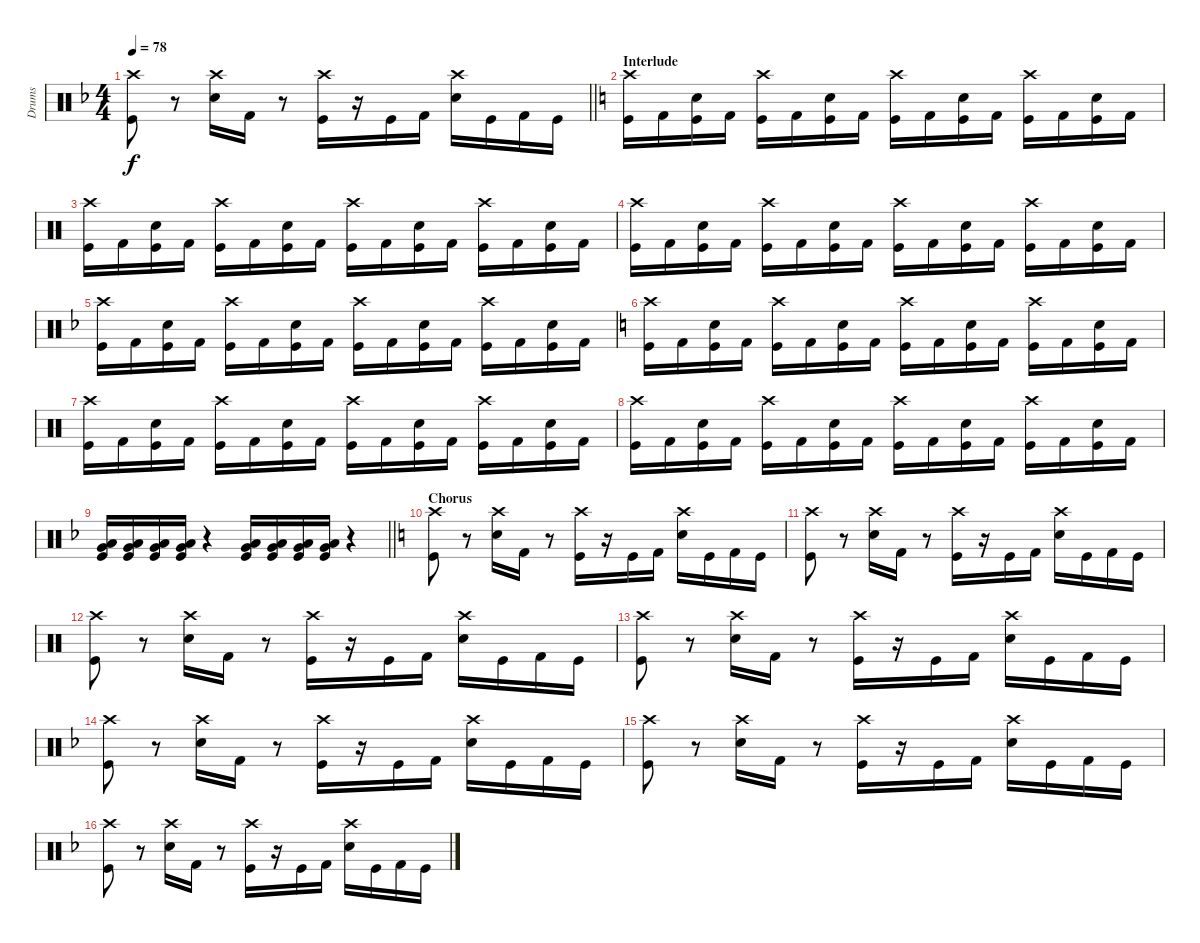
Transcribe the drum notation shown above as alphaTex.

\track ("Drums" "Drums") {instrument percussion}
\staff {score}
\articulation defaults
\ts (4 4)
\tempo 78
\clef neutral
\barLineRight lightlight
\ks f
("Crash high (hit)" "Kick (hit)").8{dy f} r.8 ("Crash high (hit)" "Snare (hit) 2").16 "Kick (hit) 2".16 r.8 ("Crash high (hit)" "Kick (hit)").16 r.16 "Kick (hit)".16 "Kick (hit) 2".16 ("Crash high (hit)" "Snare (hit) 2").16 "Kick (hit)".16 "Kick (hit) 2".16 "Kick (hit)".16 |
\section ("" "Interlude")
\ks c
("Crash high (hit)" "Kick (hit)").16 "Kick (hit) 2".16 ("Snare (hit) 2" "Kick (hit)").16 "Kick (hit) 2".16 ("Crash high (hit)" "Kick (hit)").16 "Kick (hit) 2".16 ("Snare (hit) 2" "Kick (hit)").16 "Kick (hit) 2".16 ("Crash high (hit)" "Kick (hit)").16 "Kick (hit) 2".16 ("Snare (hit) 2" "Kick (hit)").16 "Kick (hit) 2".16 ("Crash high (hit)" "Kick (hit)").16 "Kick (hit) 2".16 ("Snare (hit) 2" "Kick (hit)").16 "Kick (hit) 2".16 |
("Crash high (hit)" "Kick (hit)").16 "Kick (hit) 2".16 ("Snare (hit) 2" "Kick (hit)").16 "Kick (hit) 2".16 ("Crash high (hit)" "Kick (hit)").16 "Kick (hit) 2".16 ("Snare (hit) 2" "Kick (hit)").16 "Kick (hit) 2".16 ("Crash high (hit)" "Kick (hit)").16 "Kick (hit) 2".16 ("Snare (hit) 2" "Kick (hit)").16 "Kick (hit) 2".16 ("Crash high (hit)" "Kick (hit)").16 "Kick (hit) 2".16 ("Snare (hit) 2" "Kick (hit)").16 "Kick (hit) 2".16 |
("Crash high (hit)" "Kick (hit)").16 "Kick (hit) 2".16 ("Snare (hit) 2" "Kick (hit)").16 "Kick (hit) 2".16 ("Crash high (hit)" "Kick (hit)").16 "Kick (hit) 2".16 ("Snare (hit) 2" "Kick (hit)").16 "Kick (hit) 2".16 ("Crash high (hit)" "Kick (hit)").16 "Kick (hit) 2".16 ("Snare (hit) 2" "Kick (hit)").16 "Kick (hit) 2".16 ("Crash high (hit)" "Kick (hit)").16 "Kick (hit) 2".16 ("Snare (hit) 2" "Kick (hit)").16 "Kick (hit) 2".16 |
\ks f
("Crash high (hit)" "Kick (hit)").16 "Kick (hit) 2".16 ("Snare (hit) 2" "Kick (hit)").16 "Kick (hit) 2".16 ("Crash high (hit)" "Kick (hit)").16 "Kick (hit) 2".16 ("Snare (hit) 2" "Kick (hit)").16 "Kick (hit) 2".16 ("Crash high (hit)" "Kick (hit)").16 "Kick (hit) 2".16 ("Snare (hit) 2" "Kick (hit)").16 "Kick (hit) 2".16 ("Crash high (hit)" "Kick (hit)").16 "Kick (hit) 2".16 ("Snare (hit) 2" "Kick (hit)").16 "Kick (hit) 2".16 |
\ks c
("Crash high (hit)" "Kick (hit)").16 "Kick (hit) 2".16 ("Snare (hit) 2" "Kick (hit)").16 "Kick (hit) 2".16 ("Crash high (hit)" "Kick (hit)").16 "Kick (hit) 2".16 ("Snare (hit) 2" "Kick (hit)").16 "Kick (hit) 2".16 ("Crash high (hit)" "Kick (hit)").16 "Kick (hit) 2".16 ("Snare (hit) 2" "Kick (hit)").16 "Kick (hit) 2".16 ("Crash high (hit)" "Kick (hit)").16 "Kick (hit) 2".16 ("Snare (hit) 2" "Kick (hit)").16 "Kick (hit) 2".16 |
("Crash high (hit)" "Kick (hit)").16 "Kick (hit) 2".16 ("Snare (hit) 2" "Kick (hit)").16 "Kick (hit) 2".16 ("Crash high (hit)" "Kick (hit)").16 "Kick (hit) 2".16 ("Snare (hit) 2" "Kick (hit)").16 "Kick (hit) 2".16 ("Crash high (hit)" "Kick (hit)").16 "Kick (hit) 2".16 ("Snare (hit) 2" "Kick (hit)").16 "Kick (hit) 2".16 ("Crash high (hit)" "Kick (hit)").16 "Kick (hit) 2".16 ("Snare (hit) 2" "Kick (hit)").16 "Kick (hit) 2".16 |
("Crash high (hit)" "Kick (hit)").16 "Kick (hit) 2".16 ("Snare (hit) 2" "Kick (hit)").16 "Kick (hit) 2".16 ("Crash high (hit)" "Kick (hit)").16 "Kick (hit) 2".16 ("Snare (hit) 2" "Kick (hit)").16 "Kick (hit) 2".16 ("Crash high (hit)" "Kick (hit)").16 "Kick (hit) 2".16 ("Snare (hit) 2" "Kick (hit)").16 "Kick (hit) 2".16 ("Crash high (hit)" "Kick (hit)").16 "Kick (hit) 2".16 ("Snare (hit) 2" "Kick (hit)").16 "Kick (hit) 2".16 |
\barLineRight lightlight
\ks f
("Very Low Tom (hit)" "Low Floor Tom (hit)" "Kick (hit)").16 ("Very Low Tom (hit)" "Low Floor Tom (hit)" "Kick (hit)").16 ("Very Low Tom (hit)" "Low Floor Tom (hit)" "Kick (hit)").16 ("Very Low Tom (hit)" "Low Floor Tom (hit)" "Kick (hit)").16 r.4 ("Very Low Tom (hit)" "Low Floor Tom (hit)" "Kick (hit)").16 ("Very Low Tom (hit)" "Low Floor Tom (hit)" "Kick (hit)").16 ("Very Low Tom (hit)" "Low Floor Tom (hit)" "Kick (hit)").16 ("Very Low Tom (hit)" "Low Floor Tom (hit)" "Kick (hit)").16 r.4 |
\section ("" "Chorus")
\ks c
("Crash high (hit)" "Kick (hit)").8 r.8 ("Crash high (hit)" "Snare (hit) 2").16 "Kick (hit) 2".16 r.8 ("Crash high (hit)" "Kick (hit)").16 r.16 "Kick (hit)".16 "Kick (hit) 2".16 ("Crash high (hit)" "Snare (hit) 2").16 "Kick (hit)".16 "Kick (hit) 2".16 "Kick (hit)".16 |
("Crash high (hit)" "Kick (hit)").8 r.8 ("Crash high (hit)" "Snare (hit) 2").16 "Kick (hit) 2".16 r.8 ("Crash high (hit)" "Kick (hit)").16 r.16 "Kick (hit)".16 "Kick (hit) 2".16 ("Crash high (hit)" "Snare (hit) 2").16 "Kick (hit)".16 "Kick (hit) 2".16 "Kick (hit)".16 |
("Crash high (hit)" "Kick (hit)").8 r.8 ("Crash high (hit)" "Snare (hit) 2").16 "Kick (hit) 2".16 r.8 ("Crash high (hit)" "Kick (hit)").16 r.16 "Kick (hit)".16 "Kick (hit) 2".16 ("Crash high (hit)" "Snare (hit) 2").16 "Kick (hit)".16 "Kick (hit) 2".16 "Kick (hit)".16 |
("Crash high (hit)" "Kick (hit)").8 r.8 ("Crash high (hit)" "Snare (hit) 2").16 "Kick (hit) 2".16 r.8 ("Crash high (hit)" "Kick (hit)").16 r.16 "Kick (hit)".16 "Kick (hit) 2".16 ("Crash high (hit)" "Snare (hit) 2").16 "Kick (hit)".16 "Kick (hit) 2".16 "Kick (hit)".16 |
\ks f
("Crash high (hit)" "Kick (hit)").8 r.8 ("Crash high (hit)" "Snare (hit) 2").16 "Kick (hit) 2".16 r.8 ("Crash high (hit)" "Kick (hit)").16 r.16 "Kick (hit)".16 "Kick (hit) 2".16 ("Crash high (hit)" "Snare (hit) 2").16 "Kick (hit)".16 "Kick (hit) 2".16 "Kick (hit)".16 |
("Crash high (hit)" "Kick (hit)").8 r.8 ("Crash high (hit)" "Snare (hit) 2").16 "Kick (hit) 2".16 r.8 ("Crash high (hit)" "Kick (hit)").16 r.16 "Kick (hit)".16 "Kick (hit) 2".16 ("Crash high (hit)" "Snare (hit) 2").16 "Kick (hit)".16 "Kick (hit) 2".16 "Kick (hit)".16 |
("Crash high (hit)" "Kick (hit)").8 r.8 ("Crash high (hit)" "Snare (hit) 2").16 "Kick (hit) 2".16 r.8 ("Crash high (hit)" "Kick (hit)").16 r.16 "Kick (hit)".16 "Kick (hit) 2".16 ("Crash high (hit)" "Snare (hit) 2").16 "Kick (hit)".16 "Kick (hit) 2".16 "Kick (hit)".16
